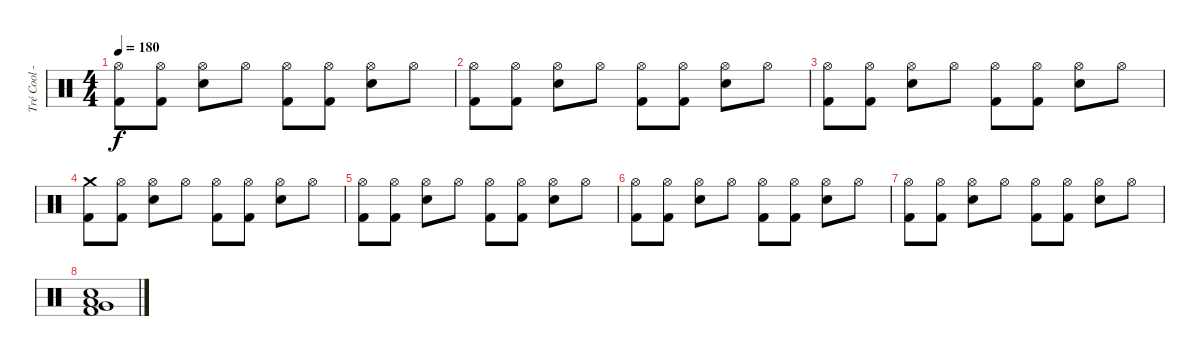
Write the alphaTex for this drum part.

\track ("Tré Cool - Drums" "Tré Cool -") {instrument percussion}
\staff {score}
\articulation defaults
\ts (4 4)
\tempo 180
\clef neutral
\ks c
("Hi-Hat (open)" "Kick (hit) 2").8{dy f} ("Hi-Hat (open)" "Kick (hit) 2").8 ("Hi-Hat (open)" "Electric Snare (hit)").8 "Hi-Hat (open)".8 ("Hi-Hat (open)" "Kick (hit) 2").8 ("Hi-Hat (open)" "Kick (hit) 2").8 ("Hi-Hat (open)" "Electric Snare (hit)").8 "Hi-Hat (open)".8 |
("Hi-Hat (open)" "Kick (hit) 2").8 ("Hi-Hat (open)" "Kick (hit) 2").8 ("Hi-Hat (open)" "Electric Snare (hit)").8 "Hi-Hat (open)".8 ("Hi-Hat (open)" "Kick (hit) 2").8 ("Hi-Hat (open)" "Kick (hit) 2").8 ("Hi-Hat (open)" "Electric Snare (hit)").8 "Hi-Hat (open)".8 |
("Hi-Hat (open)" "Kick (hit) 2").8 ("Hi-Hat (open)" "Kick (hit) 2").8 ("Hi-Hat (open)" "Electric Snare (hit)").8 "Hi-Hat (open)".8 ("Hi-Hat (open)" "Kick (hit) 2").8 ("Hi-Hat (open)" "Kick (hit) 2").8 ("Hi-Hat (open)" "Electric Snare (hit)").8 "Hi-Hat (open)".8 |
("Crash medium (hit)" "Kick (hit) 2").8 ("Hi-Hat (open)" "Kick (hit) 2").8 ("Hi-Hat (open)" "Electric Snare (hit)").8 "Hi-Hat (open)".8 ("Hi-Hat (open)" "Kick (hit) 2").8 ("Hi-Hat (open)" "Kick (hit) 2").8 ("Hi-Hat (open)" "Electric Snare (hit)").8 "Hi-Hat (open)".8 |
("Hi-Hat (open)" "Kick (hit) 2").8 ("Hi-Hat (open)" "Kick (hit) 2").8 ("Hi-Hat (open)" "Electric Snare (hit)").8 "Hi-Hat (open)".8 ("Hi-Hat (open)" "Kick (hit) 2").8 ("Hi-Hat (open)" "Kick (hit) 2").8 ("Hi-Hat (open)" "Electric Snare (hit)").8 "Hi-Hat (open)".8 |
("Hi-Hat (open)" "Kick (hit) 2").8 ("Hi-Hat (open)" "Kick (hit) 2").8 ("Hi-Hat (open)" "Electric Snare (hit)").8 "Hi-Hat (open)".8 ("Hi-Hat (open)" "Kick (hit) 2").8 ("Hi-Hat (open)" "Kick (hit) 2").8 ("Hi-Hat (open)" "Electric Snare (hit)").8 "Hi-Hat (open)".8 |
("Hi-Hat (open)" "Kick (hit) 2").8 ("Hi-Hat (open)" "Kick (hit) 2").8 ("Hi-Hat (open)" "Electric Snare (hit)").8 "Hi-Hat (open)".8 ("Hi-Hat (open)" "Kick (hit) 2").8 ("Hi-Hat (open)" "Kick (hit) 2").8 ("Hi-Hat (open)" "Electric Snare (hit)").8 "Hi-Hat (open)".8 |
("Very Low Tom (hit)" "Low Tom (hit)" "Electric Snare (hit)" "Kick (hit) 2").1
